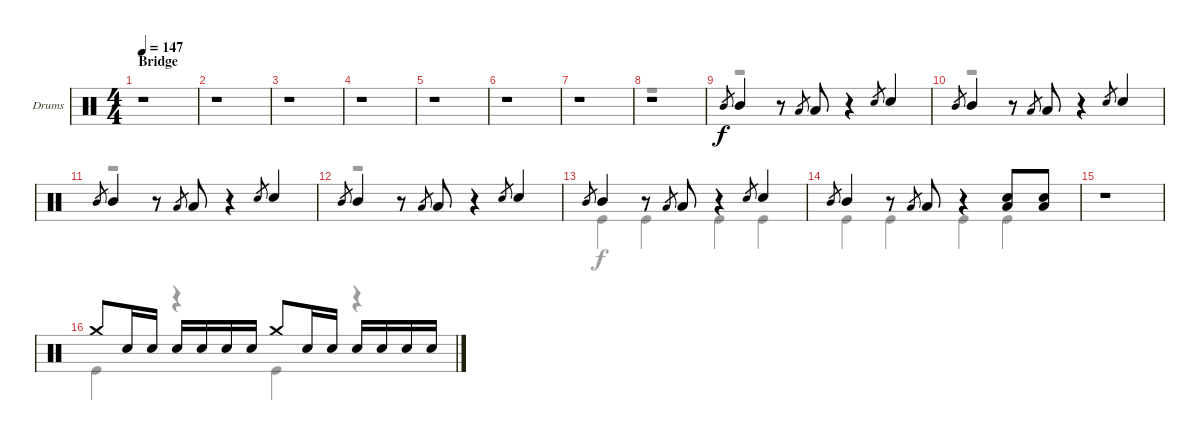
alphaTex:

\defaultSystemsLayout 4
\bracketExtendMode groupsimilarinstruments
\firstSystemTrackNameOrientation horizontal
\otherSystemsTrackNameOrientation horizontal
\track ("Drums" "Drums") {instrument percussion}
\staff {score}
\articulation defaults
\voice
\ts (4 4)
\section ("" "Bridge")
\tempo 147
\clef neutral
\ks c
r.1{dy f} |
r.1 |
r.1 |
r.1 |
r.1 |
r.1 |
r.1 |
r.1 |
"Mid Tom (hit)".8{gr} "Mid Tom (hit)".4 r.8 "Low Tom (hit)".8{gr} "Low Tom (hit)".8 r.4 "Snare (hit) 2".8{gr} "Snare (hit) 2".4 |
"Mid Tom (hit)".8{gr} "Mid Tom (hit)".4 r.8 "Low Tom (hit)".8{gr} "Low Tom (hit)".8 r.4 "Snare (hit) 2".8{gr} "Snare (hit) 2".4 |
"Mid Tom (hit)".8{gr} "Mid Tom (hit)".4 r.8 "Low Tom (hit)".8{gr} "Low Tom (hit)".8 r.4 "Snare (hit) 2".8{gr} "Snare (hit) 2".4 |
"Mid Tom (hit)".8{gr} "Mid Tom (hit)".4 r.8 "Low Tom (hit)".8{gr} "Low Tom (hit)".8 r.4 "Snare (hit) 2".8{gr} "Snare (hit) 2".4 |
"Mid Tom (hit)".8{gr} "Mid Tom (hit)".4 r.8 "Low Tom (hit)".8{gr} "Low Tom (hit)".8 r.4 "Snare (hit) 2".8{gr} "Snare (hit) 2".4 |
"Mid Tom (hit)".8{gr} "Mid Tom (hit)".4 r.8 "Low Tom (hit)".8{gr} "Low Tom (hit)".8 r.4 ("Snare (hit) 2" "Low Tom (hit)").8 ("Snare (hit) 2" "Low Tom (hit)").8 |
r.1 |
"Crash medium (hit)".8 "Snare (hit) 2".16 "Snare (hit) 2".16 "Snare (hit) 2".16 "Snare (hit) 2".16 "Snare (hit) 2".16 "Snare (hit) 2".16 "Crash medium (hit)".8 "Snare (hit) 2".16 "Snare (hit) 2".16 "Snare (hit) 2".16 "Snare (hit) 2".16 "Snare (hit) 2".16 "Snare (hit) 2".16
\voice
\clef neutral
\ottava regular
\simile none
\ks c
r.1{dy f} |
r.1 |
r.1 |
r.1 |
r.1 |
r.1 |
r.1 |
r.1 |
r.1 |
r.1 |
r.1 |
r.1 |
"Kick (hit)".4 "Kick (hit)".4 "Kick (hit)".4 "Kick (hit)".4 |
"Kick (hit)".4 "Kick (hit)".4 "Kick (hit)".4 "Kick (hit)".4 |
r.1 |
"Kick (hit)".4 r.4 "Kick (hit)".4 r.4
